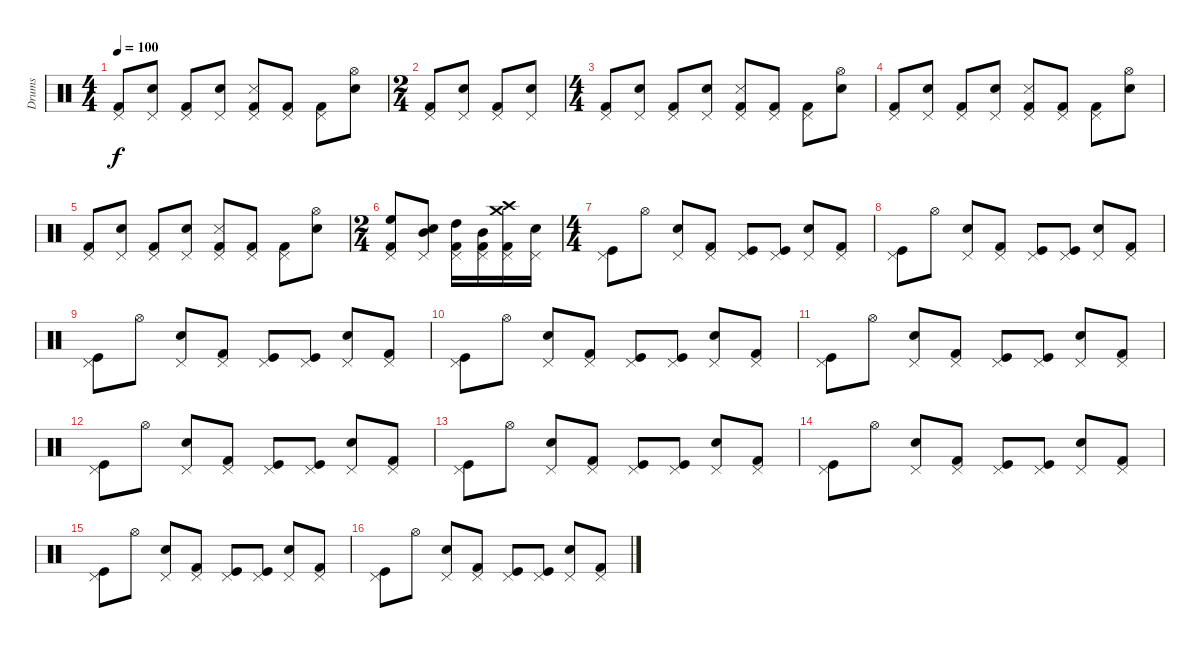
\track ("Drums" "Drums") {instrument percussion}
\staff {score}
\articulation defaults
\ts (4 4)
\tempo 100
\clef neutral
\ks c
("Pedal Hi-Hat (hit)" "Kick (hit) 2").8{dy f} ("Pedal Hi-Hat (hit)" "Snare (hit) 2").8 ("Pedal Hi-Hat (hit)" "Kick (hit) 2").8 ("Pedal Hi-Hat (hit)" "Snare (hit) 2").8 ("Pedal Hi-Hat (hit)" "Kick (hit) 2" "Snare (side stick) 3").8 ("Pedal Hi-Hat (hit)" "Kick (hit) 2").8 ("Pedal Hi-Hat (hit)" "Kick (hit) 2").8 ("Hi-Hat (open)" "Snare (hit) 2").8 |
\ts (2 4)
("Pedal Hi-Hat (hit)" "Kick (hit) 2").8 ("Pedal Hi-Hat (hit)" "Snare (hit) 2").8 ("Pedal Hi-Hat (hit)" "Kick (hit) 2").8 ("Pedal Hi-Hat (hit)" "Snare (hit) 2").8 |
\ts (4 4)
("Pedal Hi-Hat (hit)" "Kick (hit) 2").8 ("Pedal Hi-Hat (hit)" "Snare (hit) 2").8 ("Pedal Hi-Hat (hit)" "Kick (hit) 2").8 ("Pedal Hi-Hat (hit)" "Snare (hit) 2").8 ("Pedal Hi-Hat (hit)" "Kick (hit) 2" "Snare (side stick) 3").8 ("Pedal Hi-Hat (hit)" "Kick (hit) 2").8 ("Pedal Hi-Hat (hit)" "Kick (hit) 2").8 ("Hi-Hat (open)" "Snare (hit) 2").8 |
("Pedal Hi-Hat (hit)" "Kick (hit) 2").8 ("Pedal Hi-Hat (hit)" "Snare (hit) 2").8 ("Pedal Hi-Hat (hit)" "Kick (hit) 2").8 ("Pedal Hi-Hat (hit)" "Snare (hit) 2").8 ("Pedal Hi-Hat (hit)" "Kick (hit) 2" "Snare (side stick) 3").8 ("Pedal Hi-Hat (hit)" "Kick (hit) 2").8 ("Pedal Hi-Hat (hit)" "Kick (hit) 2").8 ("Hi-Hat (open)" "Snare (hit) 2").8 |
("Pedal Hi-Hat (hit)" "Kick (hit) 2").8 ("Pedal Hi-Hat (hit)" "Snare (hit) 2").8 ("Pedal Hi-Hat (hit)" "Kick (hit) 2").8 ("Pedal Hi-Hat (hit)" "Snare (hit) 2").8 ("Pedal Hi-Hat (hit)" "Kick (hit) 2" "Snare (side stick) 3").8 ("Pedal Hi-Hat (hit)" "Kick (hit) 2").8 ("Pedal Hi-Hat (hit)" "Kick (hit) 2").8 ("Hi-Hat (open)" "Snare (hit) 2").8 |
\ts (2 4)
("Pedal Hi-Hat (hit)" "Kick (hit) 2" "High Floor Tom (hit)").8 ("Pedal Hi-Hat (hit)" "Snare (hit) 2" "Mid Tom (hit)").8 ("Pedal Hi-Hat (hit)" "Kick (hit) 2" "High Tom (hit)").16 ("Pedal Hi-Hat (hit)" "Kick (hit) 2" "Mid Tom (hit)").16 ("Pedal Hi-Hat (hit)" "Kick (hit) 2" "Crash medium (hit)" "Crash high (hit)").16 ("Pedal Hi-Hat (hit)" "Snare (hit) 2").16 |
\ts (4 4)
("Pedal Hi-Hat (hit)" "Kick (hit)").8 "Hi-Hat (open)".8 ("Pedal Hi-Hat (hit)" "Snare (hit) 2").8 ("Pedal Hi-Hat (hit)" "Kick (hit) 2").8 ("Pedal Hi-Hat (hit)" "Kick (hit)").8 ("Pedal Hi-Hat (hit)" "Kick (hit)").8 ("Pedal Hi-Hat (hit)" "Snare (hit) 2").8 ("Pedal Hi-Hat (hit)" "Kick (hit) 2").8 |
("Pedal Hi-Hat (hit)" "Kick (hit)").8 "Hi-Hat (open)".8 ("Pedal Hi-Hat (hit)" "Snare (hit) 2").8 ("Pedal Hi-Hat (hit)" "Kick (hit) 2").8 ("Pedal Hi-Hat (hit)" "Kick (hit)").8 ("Pedal Hi-Hat (hit)" "Kick (hit)").8 ("Pedal Hi-Hat (hit)" "Snare (hit) 2").8 ("Pedal Hi-Hat (hit)" "Kick (hit) 2").8 |
("Pedal Hi-Hat (hit)" "Kick (hit)").8 "Hi-Hat (open)".8 ("Pedal Hi-Hat (hit)" "Snare (hit) 2").8 ("Pedal Hi-Hat (hit)" "Kick (hit) 2").8 ("Pedal Hi-Hat (hit)" "Kick (hit)").8 ("Pedal Hi-Hat (hit)" "Kick (hit)").8 ("Pedal Hi-Hat (hit)" "Snare (hit) 2").8 ("Pedal Hi-Hat (hit)" "Kick (hit) 2").8 |
("Pedal Hi-Hat (hit)" "Kick (hit)").8 "Hi-Hat (open)".8 ("Pedal Hi-Hat (hit)" "Snare (hit) 2").8 ("Pedal Hi-Hat (hit)" "Kick (hit) 2").8 ("Pedal Hi-Hat (hit)" "Kick (hit)").8 ("Pedal Hi-Hat (hit)" "Kick (hit)").8 ("Pedal Hi-Hat (hit)" "Snare (hit) 2").8 ("Pedal Hi-Hat (hit)" "Kick (hit) 2").8 |
("Pedal Hi-Hat (hit)" "Kick (hit)").8 "Hi-Hat (open)".8 ("Pedal Hi-Hat (hit)" "Snare (hit) 2").8 ("Pedal Hi-Hat (hit)" "Kick (hit) 2").8 ("Pedal Hi-Hat (hit)" "Kick (hit)").8 ("Pedal Hi-Hat (hit)" "Kick (hit)").8 ("Pedal Hi-Hat (hit)" "Snare (hit) 2").8 ("Pedal Hi-Hat (hit)" "Kick (hit) 2").8 |
("Pedal Hi-Hat (hit)" "Kick (hit)").8 "Hi-Hat (open)".8 ("Pedal Hi-Hat (hit)" "Snare (hit) 2").8 ("Pedal Hi-Hat (hit)" "Kick (hit) 2").8 ("Pedal Hi-Hat (hit)" "Kick (hit)").8 ("Pedal Hi-Hat (hit)" "Kick (hit)").8 ("Pedal Hi-Hat (hit)" "Snare (hit) 2").8 ("Pedal Hi-Hat (hit)" "Kick (hit) 2").8 |
("Pedal Hi-Hat (hit)" "Kick (hit)").8 "Hi-Hat (open)".8 ("Pedal Hi-Hat (hit)" "Snare (hit) 2").8 ("Pedal Hi-Hat (hit)" "Kick (hit) 2").8 ("Pedal Hi-Hat (hit)" "Kick (hit)").8 ("Pedal Hi-Hat (hit)" "Kick (hit)").8 ("Pedal Hi-Hat (hit)" "Snare (hit) 2").8 ("Pedal Hi-Hat (hit)" "Kick (hit) 2").8 |
("Pedal Hi-Hat (hit)" "Kick (hit)").8 "Hi-Hat (open)".8 ("Pedal Hi-Hat (hit)" "Snare (hit) 2").8 ("Pedal Hi-Hat (hit)" "Kick (hit) 2").8 ("Pedal Hi-Hat (hit)" "Kick (hit)").8 ("Pedal Hi-Hat (hit)" "Kick (hit)").8 ("Pedal Hi-Hat (hit)" "Snare (hit) 2").8 ("Pedal Hi-Hat (hit)" "Kick (hit) 2").8 |
("Pedal Hi-Hat (hit)" "Kick (hit)").8 "Hi-Hat (open)".8 ("Pedal Hi-Hat (hit)" "Snare (hit) 2").8 ("Pedal Hi-Hat (hit)" "Kick (hit) 2").8 ("Pedal Hi-Hat (hit)" "Kick (hit)").8 ("Pedal Hi-Hat (hit)" "Kick (hit)").8 ("Pedal Hi-Hat (hit)" "Snare (hit) 2").8 ("Pedal Hi-Hat (hit)" "Kick (hit) 2").8 |
("Pedal Hi-Hat (hit)" "Kick (hit)").8 "Hi-Hat (open)".8 ("Pedal Hi-Hat (hit)" "Snare (hit) 2").8 ("Pedal Hi-Hat (hit)" "Kick (hit) 2").8 ("Pedal Hi-Hat (hit)" "Kick (hit)").8 ("Pedal Hi-Hat (hit)" "Kick (hit)").8 ("Pedal Hi-Hat (hit)" "Snare (hit) 2").8 ("Pedal Hi-Hat (hit)" "Kick (hit) 2").8
